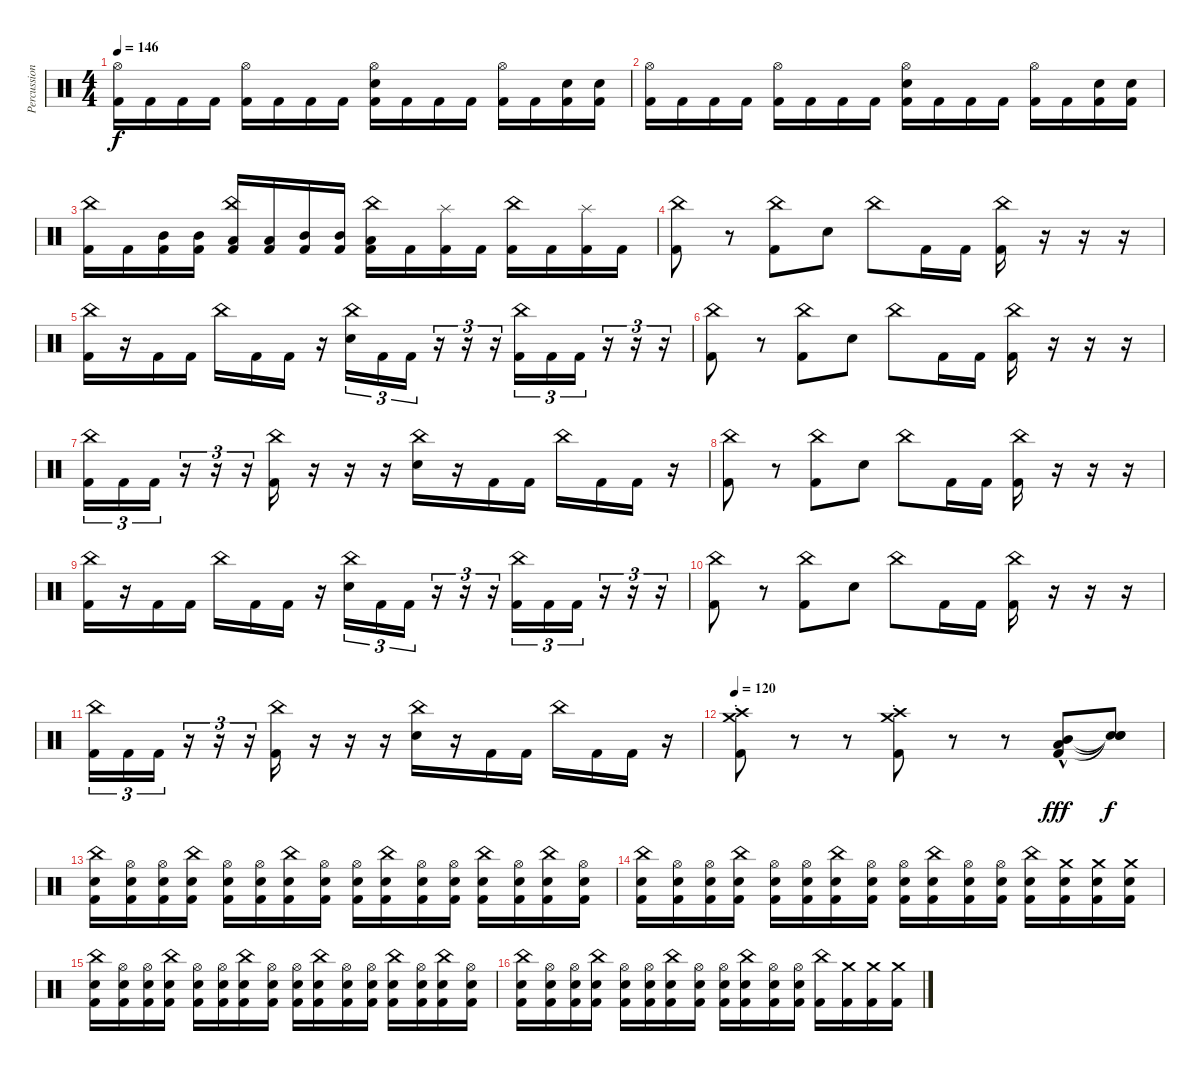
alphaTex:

\track ("Percussion" "Percussion") {instrument percussion}
\staff {score}
\articulation defaults
\ts (4 4)
\tempo 146
\clef neutral
\ks c
("Hi-Hat (open)" "Kick (hit) 2").16{dy f} "Kick (hit) 2".16 "Kick (hit) 2".16 "Kick (hit) 2".16 ("Hi-Hat (open)" "Kick (hit) 2").16 "Kick (hit) 2".16 "Kick (hit) 2".16 "Kick (hit) 2".16 ("Hi-Hat (open)" "Electric Snare (hit)" "Kick (hit) 2").16 "Kick (hit) 2".16 "Kick (hit) 2".16 "Kick (hit) 2".16 ("Hi-Hat (open)" "Kick (hit) 2").16 "Kick (hit) 2".16 ("Electric Snare (hit)" "Kick (hit) 2").16 ("Electric Snare (hit)" "Kick (hit) 2").16 |
("Hi-Hat (open)" "Kick (hit) 2").16 "Kick (hit) 2".16 "Kick (hit) 2".16 "Kick (hit) 2".16 ("Hi-Hat (open)" "Kick (hit) 2").16 "Kick (hit) 2".16 "Kick (hit) 2".16 "Kick (hit) 2".16 ("Hi-Hat (open)" "Electric Snare (hit)" "Kick (hit) 2").16 "Kick (hit) 2".16 "Kick (hit) 2".16 "Kick (hit) 2".16 ("Hi-Hat (open)" "Kick (hit) 2").16 "Kick (hit) 2".16 ("Electric Snare (hit)" "Kick (hit) 2").16 ("Electric Snare (hit)" "Kick (hit) 2").16 |
("China (hit)" "Kick (hit) 2").16 "Kick (hit) 2".16 ("Mid Tom (hit)" "Kick (hit) 2").16 ("Mid Tom (hit)" "Kick (hit) 2").16 ("China (hit)" "Low Tom (hit)" "Kick (hit) 2").16 ("Low Tom (hit)" "Kick (hit) 2").16 ("Mid Tom (hit)" "Kick (hit) 2").16 ("Mid Tom (hit)" "Kick (hit) 2").16 ("China (hit)" "Low Tom (hit)" "Kick (hit) 2").16 "Kick (hit) 2".16 ("Splash (hit)" "Kick (hit) 2").16 "Kick (hit) 2".16 ("China (hit)" "Kick (hit) 2").16 "Kick (hit) 2".16 ("Splash (hit)" "Kick (hit) 2").16 "Kick (hit) 2".16 |
("China (hit)" "Kick (hit) 2").8 r.8 ("China (hit)" "Kick (hit) 2").8 "Electric Snare (hit)".8 "China (hit)".8 "Kick (hit) 2".16 "Kick (hit) 2".16 ("China (hit)" "Kick (hit) 2").16 r.16 r.16 r.16 |
("China (hit)" "Kick (hit) 2").16 r.16 "Kick (hit) 2".16 "Kick (hit) 2".16 "China (hit)".16 "Kick (hit) 2".16 "Kick (hit) 2".16 r.16 ("China (hit)" "Electric Snare (hit)").16{tu (3 2)} "Kick (hit) 2".16{tu (3 2)} "Kick (hit) 2".16{tu (3 2)} r.16{tu (3 2)} r.16{tu (3 2)} r.16{tu (3 2)} ("China (hit)" "Kick (hit) 2").16{tu (3 2)} "Kick (hit) 2".16{tu (3 2)} "Kick (hit) 2".16{tu (3 2)} r.16{tu (3 2)} r.16{tu (3 2)} r.16{tu (3 2)} |
("China (hit)" "Kick (hit) 2").8 r.8 ("China (hit)" "Kick (hit) 2").8 "Electric Snare (hit)".8 "China (hit)".8 "Kick (hit) 2".16 "Kick (hit) 2".16 ("China (hit)" "Kick (hit) 2").16 r.16 r.16 r.16 |
("China (hit)" "Kick (hit) 2").16{tu (3 2)} "Kick (hit) 2".16{tu (3 2)} "Kick (hit) 2".16{tu (3 2)} r.16{tu (3 2)} r.16{tu (3 2)} r.16{tu (3 2)} ("China (hit)" "Kick (hit) 2").16 r.16 r.16 r.16 ("China (hit)" "Electric Snare (hit)").16 r.16 "Kick (hit) 2".16 "Kick (hit) 2".16 "China (hit)".16 "Kick (hit) 2".16 "Kick (hit) 2".16 r.16 |
("China (hit)" "Kick (hit) 2").8 r.8 ("China (hit)" "Kick (hit) 2").8 "Electric Snare (hit)".8 "China (hit)".8 "Kick (hit) 2".16 "Kick (hit) 2".16 ("China (hit)" "Kick (hit) 2").16 r.16 r.16 r.16 |
("China (hit)" "Kick (hit) 2").16 r.16 "Kick (hit) 2".16 "Kick (hit) 2".16 "China (hit)".16 "Kick (hit) 2".16 "Kick (hit) 2".16 r.16 ("China (hit)" "Electric Snare (hit)").16{tu (3 2)} "Kick (hit) 2".16{tu (3 2)} "Kick (hit) 2".16{tu (3 2)} r.16{tu (3 2)} r.16{tu (3 2)} r.16{tu (3 2)} ("China (hit)" "Kick (hit) 2").16{tu (3 2)} "Kick (hit) 2".16{tu (3 2)} "Kick (hit) 2".16{tu (3 2)} r.16{tu (3 2)} r.16{tu (3 2)} r.16{tu (3 2)} |
("China (hit)" "Kick (hit) 2").8 r.8 ("China (hit)" "Kick (hit) 2").8 "Electric Snare (hit)".8 "China (hit)".8 "Kick (hit) 2".16 "Kick (hit) 2".16 ("China (hit)" "Kick (hit) 2").16 r.16 r.16 r.16 |
("China (hit)" "Kick (hit) 2").16{tu (3 2)} "Kick (hit) 2".16{tu (3 2)} "Kick (hit) 2".16{tu (3 2)} r.16{tu (3 2)} r.16{tu (3 2)} r.16{tu (3 2)} ("China (hit)" "Kick (hit) 2").16 r.16 r.16 r.16 ("China (hit)" "Electric Snare (hit)").16 r.16 "Kick (hit) 2".16 "Kick (hit) 2".16 "China (hit)".16 "Kick (hit) 2".16 "Kick (hit) 2".16 r.16 |
\tempo 120
("Crash medium (hit)"{st} "Crash high (hit)"{st} "Kick (hit) 2"{st}).8 r.8 r.8 ("Crash medium (hit)"{st} "Crash high (hit)"{st} "Kick (hit) 2"{st}).8 r.8 r.8 ("Mid Tom (hit)" "Low Tom (hit)"{hac} "Kick (hit) 2").8{dy fff} ("Snare (hit)"{t} "Snare (hit)"{t} "Snare (hit)"{t}).8{dy f} |
("China (hit)" "Electric Snare (hit)" "Kick (hit) 2").16 ("Hi-Hat (open)" "Electric Snare (hit)" "Kick (hit) 2").16 ("Hi-Hat (open)" "Electric Snare (hit)" "Kick (hit) 2").16 ("China (hit)" "Electric Snare (hit)" "Kick (hit) 2").16 ("Hi-Hat (open)" "Electric Snare (hit)" "Kick (hit) 2").16 ("Hi-Hat (open)" "Electric Snare (hit)" "Kick (hit) 2").16 ("China (hit)" "Electric Snare (hit)" "Kick (hit) 2").16 ("Hi-Hat (open)" "Electric Snare (hit)" "Kick (hit) 2").16 ("Hi-Hat (open)" "Electric Snare (hit)" "Kick (hit) 2").16 ("China (hit)" "Electric Snare (hit)" "Kick (hit) 2").16 ("Hi-Hat (open)" "Electric Snare (hit)" "Kick (hit) 2").16 ("Hi-Hat (open)" "Electric Snare (hit)" "Kick (hit) 2").16 ("China (hit)" "Electric Snare (hit)" "Kick (hit) 2").16 ("Hi-Hat (open)" "Electric Snare (hit)" "Kick (hit) 2").16 ("China (hit)" "Electric Snare (hit)" "Kick (hit) 2").16 ("Hi-Hat (open)" "Electric Snare (hit)" "Kick (hit) 2").16 |
("China (hit)" "Electric Snare (hit)" "Kick (hit) 2").16 ("Hi-Hat (open)" "Electric Snare (hit)" "Kick (hit) 2").16 ("Hi-Hat (open)" "Electric Snare (hit)" "Kick (hit) 2").16 ("China (hit)" "Electric Snare (hit)" "Kick (hit) 2").16 ("Hi-Hat (open)" "Electric Snare (hit)" "Kick (hit) 2").16 ("Hi-Hat (open)" "Electric Snare (hit)" "Kick (hit) 2").16 ("China (hit)" "Electric Snare (hit)" "Kick (hit) 2").16 ("Hi-Hat (open)" "Electric Snare (hit)" "Kick (hit) 2").16 ("Hi-Hat (open)" "Electric Snare (hit)" "Kick (hit) 2").16 ("China (hit)" "Electric Snare (hit)" "Kick (hit) 2").16 ("Hi-Hat (open)" "Electric Snare (hit)" "Kick (hit) 2").16 ("Hi-Hat (open)" "Electric Snare (hit)" "Kick (hit) 2").16 ("China (hit)" "Electric Snare (hit)" "Kick (hit) 2").16 ("Crash medium (hit)" "Electric Snare (hit)" "Kick (hit) 2").16 ("Crash medium (hit)" "Electric Snare (hit)" "Kick (hit) 2").16 ("Crash medium (hit)" "Electric Snare (hit)" "Kick (hit) 2").16 |
("China (hit)" "Electric Snare (hit)" "Kick (hit) 2").16 ("Hi-Hat (open)" "Electric Snare (hit)" "Kick (hit) 2").16 ("Hi-Hat (open)" "Electric Snare (hit)" "Kick (hit) 2").16 ("China (hit)" "Electric Snare (hit)" "Kick (hit) 2").16 ("Hi-Hat (open)" "Electric Snare (hit)" "Kick (hit) 2").16 ("Hi-Hat (open)" "Electric Snare (hit)" "Kick (hit) 2").16 ("China (hit)" "Electric Snare (hit)" "Kick (hit) 2").16 ("Hi-Hat (open)" "Electric Snare (hit)" "Kick (hit) 2").16 ("Hi-Hat (open)" "Electric Snare (hit)" "Kick (hit) 2").16 ("China (hit)" "Electric Snare (hit)" "Kick (hit) 2").16 ("Hi-Hat (open)" "Electric Snare (hit)" "Kick (hit) 2").16 ("Hi-Hat (open)" "Electric Snare (hit)" "Kick (hit) 2").16 ("China (hit)" "Electric Snare (hit)" "Kick (hit) 2").16 ("Hi-Hat (open)" "Electric Snare (hit)" "Kick (hit) 2").16 ("China (hit)" "Electric Snare (hit)" "Kick (hit) 2").16 ("Hi-Hat (open)" "Electric Snare (hit)" "Kick (hit) 2").16 |
("China (hit)" "Electric Snare (hit)" "Kick (hit) 2").16 ("Hi-Hat (open)" "Electric Snare (hit)" "Kick (hit) 2").16 ("Hi-Hat (open)" "Electric Snare (hit)" "Kick (hit) 2").16 ("China (hit)" "Electric Snare (hit)" "Kick (hit) 2").16 ("Hi-Hat (open)" "Electric Snare (hit)" "Kick (hit) 2").16 ("Hi-Hat (open)" "Electric Snare (hit)" "Kick (hit) 2").16 ("China (hit)" "Electric Snare (hit)" "Kick (hit) 2").16 ("Hi-Hat (open)" "Electric Snare (hit)" "Kick (hit) 2").16 ("Hi-Hat (open)" "Electric Snare (hit)" "Kick (hit) 2").16 ("China (hit)" "Electric Snare (hit)" "Kick (hit) 2").16 ("Hi-Hat (open)" "Electric Snare (hit)" "Kick (hit) 2").16 ("Hi-Hat (open)" "Electric Snare (hit)" "Kick (hit) 2").16 ("China (hit)" "Kick (hit) 2").16 ("Crash medium (hit)" "Kick (hit) 2").16 ("Crash medium (hit)" "Kick (hit) 2").16 ("Crash medium (hit)" "Kick (hit) 2").16
